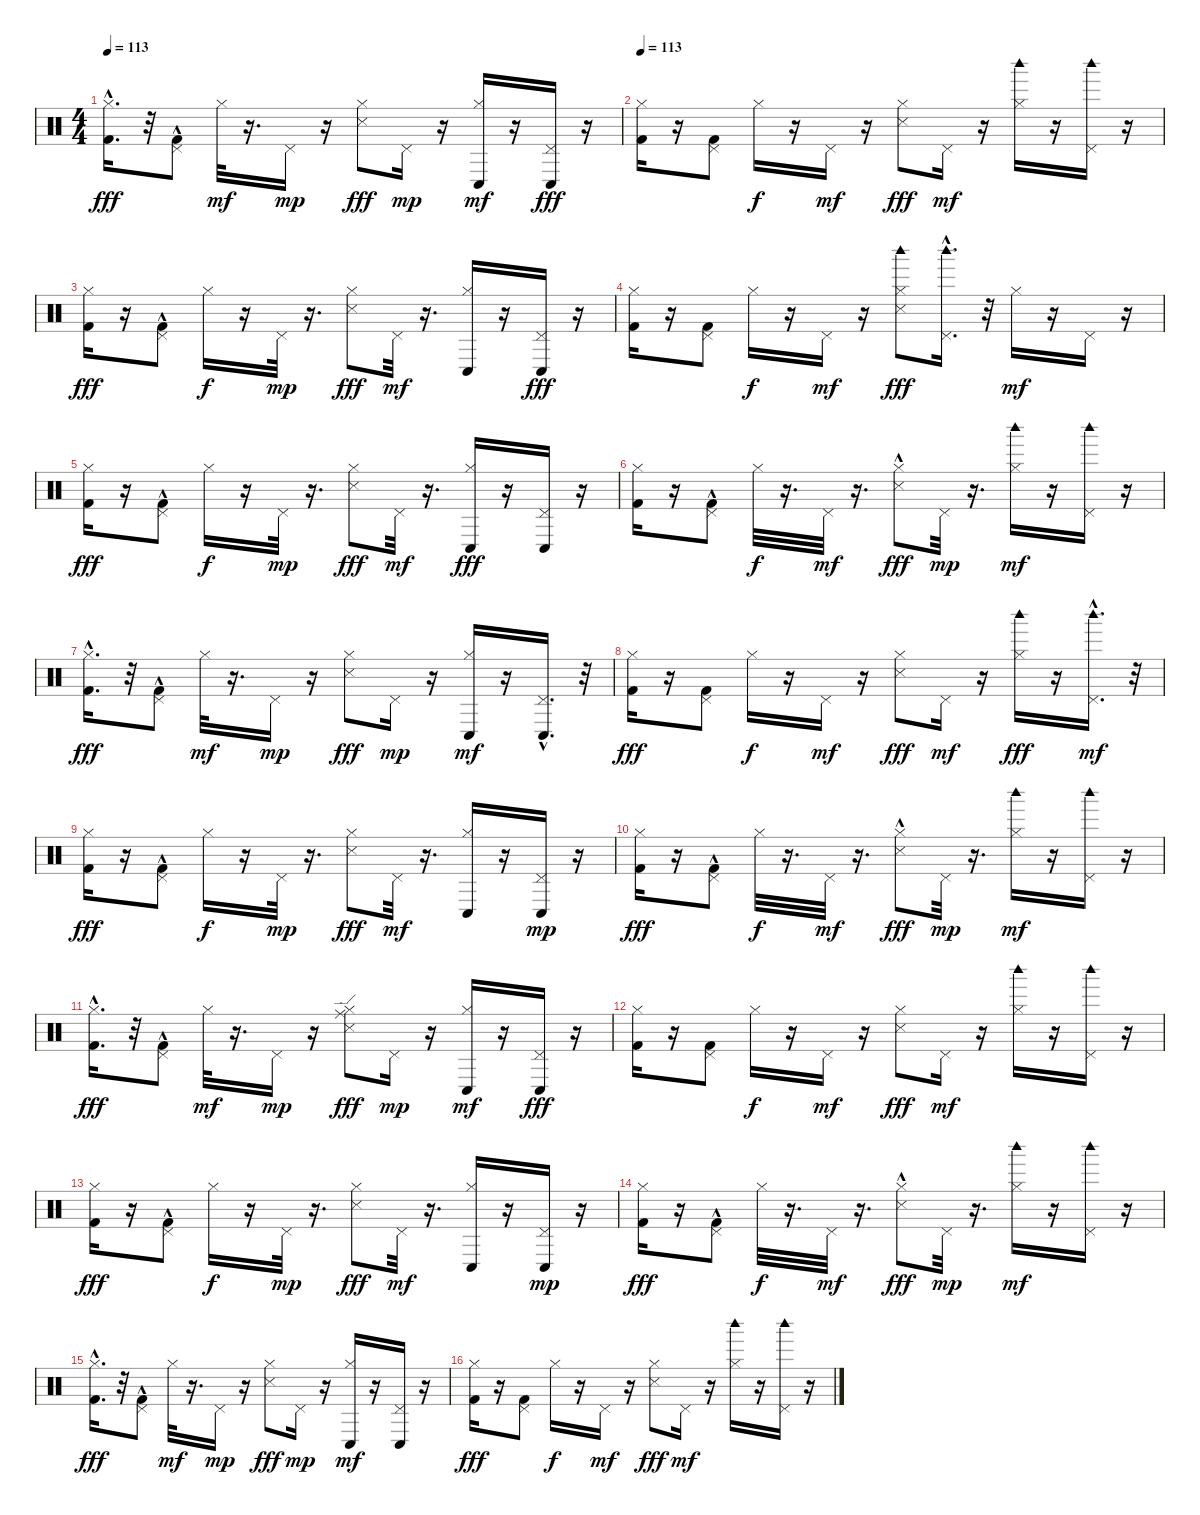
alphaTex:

\track "" {instrument percussion}
\staff {score}
\articulation defaults
\ts (4 4)
\tempo 113
\clef neutral
\ks c
("Hi-Hat (closed)" "Kick (hit) 2"{hac}).16{d dy fff} r.32 ("Pedal Hi-Hat (hit)" "Kick (hit) 2"{hac}).8 "Hi-Hat (closed)".32{dy mf} r.16{d} "Pedal Hi-Hat (hit)".16{dy mp} r.16 ("Hi-Hat (closed)" "Snare (side stick) 3").8{dy fff} "Pedal Hi-Hat (hit)".16{dy mp} r.16 ("Conga low (hit)" "Hi-Hat (closed)").16{dy mf} r.16 ("Pedal Hi-Hat (hit)" "Conga low (hit)").16{dy fff} r.16 |
\tempo 113
("Hi-Hat (closed)" "Kick (hit) 2").16 r.16 ("Pedal Hi-Hat (hit)" "Kick (hit) 2").8 "Hi-Hat (closed)".16{dy f} r.16 "Pedal Hi-Hat (hit)".16{dy mf} r.16 ("Hi-Hat (closed)" "Snare (side stick) 3").8{dy fff} "Pedal Hi-Hat (hit)".16{dy mf} r.16 ("Woodblock high (hit)" "Hi-Hat (closed)").16 r.16 ("Woodblock high (hit)" "Pedal Hi-Hat (hit)").16 r.16 |
("Hi-Hat (closed)" "Kick (hit) 2").16{dy fff} r.16 ("Pedal Hi-Hat (hit)" "Kick (hit) 2"{hac}).8 "Hi-Hat (closed)".16{dy f} r.16 "Pedal Hi-Hat (hit)".32{dy mp} r.16{d} ("Hi-Hat (closed)" "Snare (side stick) 3").8{dy fff} "Pedal Hi-Hat (hit)".32{dy mf} r.16{d} ("Conga low (hit)" "Hi-Hat (closed)").16 r.16 ("Pedal Hi-Hat (hit)" "Conga low (hit)").16{dy fff} r.16 |
("Hi-Hat (closed)" "Kick (hit) 2").16 r.16 ("Pedal Hi-Hat (hit)" "Kick (hit) 2").8 "Hi-Hat (closed)".16{dy f} r.16 "Pedal Hi-Hat (hit)".16{dy mf} r.16 ("Hi-Hat (closed)" "Snare (side stick) 3" "Woodblock high (hit)").8{dy fff} ("Pedal Hi-Hat (hit)" "Woodblock high (hit)"{hac}).16{d} r.32 "Hi-Hat (closed)".16{dy mf} r.16 "Pedal Hi-Hat (hit)".16 r.16 |
("Hi-Hat (closed)" "Kick (hit) 2").16{dy fff} r.16 ("Pedal Hi-Hat (hit)" "Kick (hit) 2"{hac}).8 "Hi-Hat (closed)".16{dy f} r.16 "Pedal Hi-Hat (hit)".32{dy mp} r.16{d} ("Hi-Hat (closed)" "Snare (side stick) 3").8{dy fff} "Pedal Hi-Hat (hit)".32{dy mf} r.16{d} ("Hi-Hat (closed)" "Conga low (hit)").16{dy fff} r.16 ("Pedal Hi-Hat (hit)" "Conga low (hit)").16 r.16 |
("Hi-Hat (closed)" "Kick (hit) 2").16 r.16 ("Pedal Hi-Hat (hit)" "Kick (hit) 2"{hac}).8 "Hi-Hat (closed)".32{dy f} r.16{d} "Pedal Hi-Hat (hit)".32{dy mf} r.16{d} ("Hi-Hat (closed)" "Snare (side stick) 3"{hac}).8{dy fff} "Pedal Hi-Hat (hit)".32{dy mp} r.16{d} ("Woodblock high (hit)" "Hi-Hat (closed)").16{dy mf} r.16 ("Woodblock high (hit)" "Pedal Hi-Hat (hit)").16 r.16 |
("Hi-Hat (closed)" "Kick (hit) 2"{hac}).16{d dy fff} r.32 ("Pedal Hi-Hat (hit)" "Kick (hit) 2"{hac}).8 "Hi-Hat (closed)".32{dy mf} r.16{d} "Pedal Hi-Hat (hit)".16{dy mp} r.16 ("Hi-Hat (closed)" "Snare (side stick) 3").8{dy fff} "Pedal Hi-Hat (hit)".16{dy mp} r.16 ("Conga low (hit)" "Hi-Hat (closed)").16{dy mf} r.16 ("Conga low (hit)"{hac} "Pedal Hi-Hat (hit)").16{d} r.32 |
("Hi-Hat (closed)" "Kick (hit) 2").16{dy fff} r.16 ("Pedal Hi-Hat (hit)" "Kick (hit) 2").8 "Hi-Hat (closed)".16{dy f} r.16 "Pedal Hi-Hat (hit)".16{dy mf} r.16 ("Hi-Hat (closed)" "Snare (side stick) 3").8{dy fff} "Pedal Hi-Hat (hit)".16{dy mf} r.16 ("Hi-Hat (closed)" "Woodblock high (hit)").16{dy fff} r.16 ("Woodblock high (hit)"{hac} "Pedal Hi-Hat (hit)").16{d dy mf} r.32 |
("Hi-Hat (closed)" "Kick (hit) 2").16{dy fff} r.16 ("Pedal Hi-Hat (hit)" "Kick (hit) 2"{hac}).8 "Hi-Hat (closed)".16{dy f} r.16 "Pedal Hi-Hat (hit)".32{dy mp} r.16{d} ("Hi-Hat (closed)" "Snare (side stick) 3").8{dy fff} "Pedal Hi-Hat (hit)".32{dy mf} r.16{d} ("Conga low (hit)" "Hi-Hat (closed)").16 r.16 ("Conga low (hit)" "Pedal Hi-Hat (hit)").16{dy mp} r.16 |
("Hi-Hat (closed)" "Kick (hit) 2").16{dy fff} r.16 ("Pedal Hi-Hat (hit)" "Kick (hit) 2"{hac}).8 "Hi-Hat (closed)".32{dy f} r.16{d} "Pedal Hi-Hat (hit)".32{dy mf} r.16{d} ("Hi-Hat (closed)" "Snare (side stick) 3"{hac}).8{dy fff} "Pedal Hi-Hat (hit)".32{dy mp} r.16{d} ("Woodblock high (hit)" "Hi-Hat (closed)").16{dy mf} r.16 ("Woodblock high (hit)" "Pedal Hi-Hat (hit)").16 r.16 |
("Hi-Hat (closed)" "Kick (hit) 2"{hac}).16{d dy fff} r.32 ("Pedal Hi-Hat (hit)" "Kick (hit) 2"{hac}).8 "Hi-Hat (closed)".32{dy mf} r.16{d} "Pedal Hi-Hat (hit)".16{dy mp} r.16 ("Ride (edge)" "Hi-Hat (closed)" "Snare (side stick) 3").8{dy fff} "Pedal Hi-Hat (hit)".16{dy mp} r.16 ("Conga low (hit)" "Hi-Hat (closed)").16{dy mf} r.16 ("Pedal Hi-Hat (hit)" "Conga low (hit)").16{dy fff} r.16 |
("Hi-Hat (closed)" "Kick (hit) 2").16 r.16 ("Pedal Hi-Hat (hit)" "Kick (hit) 2").8 "Hi-Hat (closed)".16{dy f} r.16 "Pedal Hi-Hat (hit)".16{dy mf} r.16 ("Hi-Hat (closed)" "Snare (side stick) 3").8{dy fff} "Pedal Hi-Hat (hit)".16{dy mf} r.16 ("Woodblock high (hit)" "Hi-Hat (closed)").16 r.16 ("Woodblock high (hit)" "Pedal Hi-Hat (hit)").16 r.16 |
("Hi-Hat (closed)" "Kick (hit) 2").16{dy fff} r.16 ("Pedal Hi-Hat (hit)" "Kick (hit) 2"{hac}).8 "Hi-Hat (closed)".16{dy f} r.16 "Pedal Hi-Hat (hit)".32{dy mp} r.16{d} ("Hi-Hat (closed)" "Snare (side stick) 3").8{dy fff} "Pedal Hi-Hat (hit)".32{dy mf} r.16{d} ("Conga low (hit)" "Hi-Hat (closed)").16 r.16 ("Conga low (hit)" "Pedal Hi-Hat (hit)").16{dy mp} r.16 |
("Hi-Hat (closed)" "Kick (hit) 2").16{dy fff} r.16 ("Pedal Hi-Hat (hit)" "Kick (hit) 2"{hac}).8 "Hi-Hat (closed)".32{dy f} r.16{d} "Pedal Hi-Hat (hit)".32{dy mf} r.16{d} ("Hi-Hat (closed)" "Snare (side stick) 3"{hac}).8{dy fff} "Pedal Hi-Hat (hit)".32{dy mp} r.16{d} ("Woodblock high (hit)" "Hi-Hat (closed)").16{dy mf} r.16 ("Woodblock high (hit)" "Pedal Hi-Hat (hit)").16 r.16 |
("Hi-Hat (closed)" "Kick (hit) 2"{hac}).16{d dy fff} r.32 ("Pedal Hi-Hat (hit)" "Kick (hit) 2"{hac}).8 "Hi-Hat (closed)".32{dy mf} r.16{d} "Pedal Hi-Hat (hit)".16{dy mp} r.16 ("Hi-Hat (closed)" "Snare (side stick) 3").8{dy fff} "Pedal Hi-Hat (hit)".16{dy mp} r.16 ("Conga low (hit)" "Hi-Hat (closed)").16{dy mf} r.16 ("Conga low (hit)" "Pedal Hi-Hat (hit)").16 r.16 |
("Hi-Hat (closed)" "Kick (hit) 2").16{dy fff} r.16 ("Pedal Hi-Hat (hit)" "Kick (hit) 2").8 "Hi-Hat (closed)".16{dy f} r.16 "Pedal Hi-Hat (hit)".16{dy mf} r.16 ("Hi-Hat (closed)" "Snare (side stick) 3").8{dy fff} "Pedal Hi-Hat (hit)".16{dy mf} r.16 ("Woodblock high (hit)" "Hi-Hat (closed)").16 r.16 ("Woodblock high (hit)" "Pedal Hi-Hat (hit)").16 r.16
